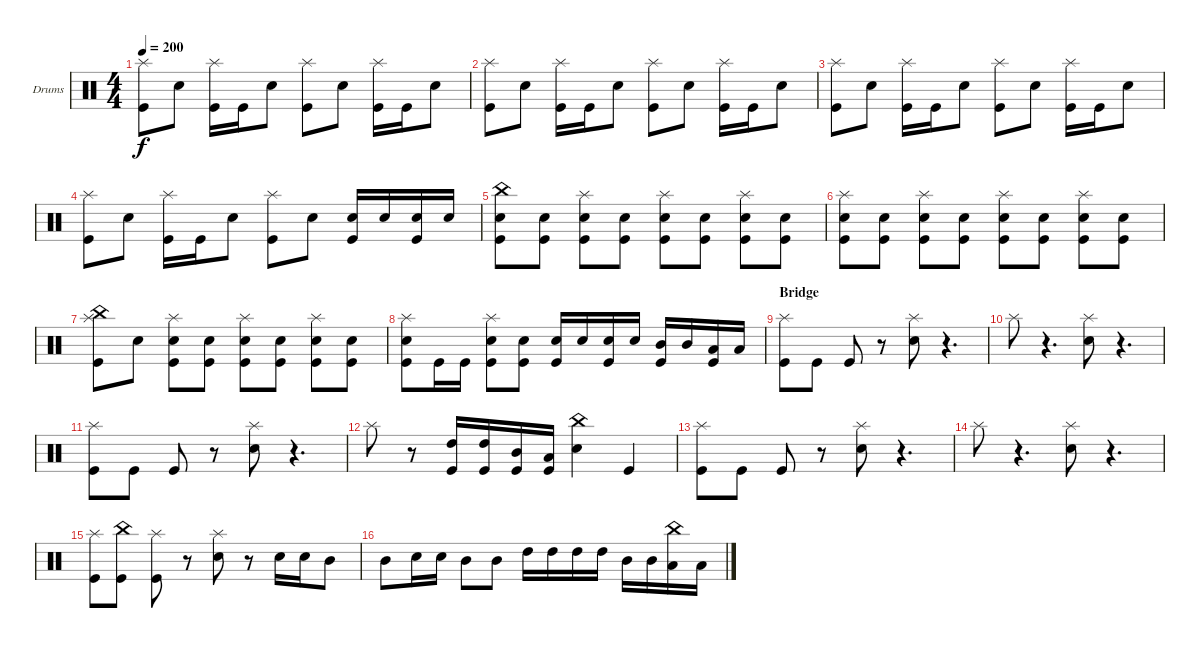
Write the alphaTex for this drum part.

\defaultSystemsLayout 4
\bracketExtendMode groupsimilarinstruments
\firstSystemTrackNameOrientation horizontal
\otherSystemsTrackNameOrientation horizontal
\track ("Drumkit" "Drums") {instrument percussion}
\staff {score}
\articulation defaults
\ts (4 4)
\tempo 200
\clef neutral
\ks c
("Splash (hit)" "Kick (hit)").8{dy f} "Snare (hit) 2".8 ("Splash (hit)" "Kick (hit)").16 "Kick (hit)".16 "Snare (hit) 2".8 ("Splash (hit)" "Kick (hit)").8 "Snare (hit) 2".8 ("Splash (hit)" "Kick (hit)").16 "Kick (hit)".16 "Snare (hit) 2".8 |
("Splash (hit)" "Kick (hit)").8 "Snare (hit) 2".8 ("Splash (hit)" "Kick (hit)").16 "Kick (hit)".16 "Snare (hit) 2".8 ("Splash (hit)" "Kick (hit)").8 "Snare (hit) 2".8 ("Splash (hit)" "Kick (hit)").16 "Kick (hit)".16 "Snare (hit) 2".8 |
("Splash (hit)" "Kick (hit)").8 "Snare (hit) 2".8 ("Splash (hit)" "Kick (hit)").16 "Kick (hit)".16 "Snare (hit) 2".8 ("Splash (hit)" "Kick (hit)").8 "Snare (hit) 2".8 ("Splash (hit)" "Kick (hit)").16 "Kick (hit)".16 "Snare (hit) 2".8 |
("Splash (hit)" "Kick (hit)").8 "Snare (hit) 2".8 ("Splash (hit)" "Kick (hit)").16 "Kick (hit)".16 "Snare (hit) 2".8 ("Splash (hit)" "Kick (hit)").8 "Snare (hit) 2".8 ("Kick (hit)" "Snare (hit) 2").16 "Snare (hit) 2".16 ("Snare (hit) 2" "Kick (hit)").16 "Snare (hit) 2".16 |
("Kick (hit)" "China (hit)" "Snare (hit) 2").8 ("Snare (hit) 2" "Kick (hit)").8 ("Splash (hit)" "Kick (hit)" "Snare (hit) 2").8 ("Snare (hit) 2" "Kick (hit)").8 ("Splash (hit)" "Kick (hit)" "Snare (hit) 2").8 ("Snare (hit) 2" "Kick (hit)").8 ("Splash (hit)" "Kick (hit)" "Snare (hit) 2").8 ("Snare (hit) 2" "Kick (hit)").8 |
("Splash (hit)" "Kick (hit)" "Snare (hit) 2").8 ("Snare (hit) 2" "Kick (hit)").8 ("Splash (hit)" "Kick (hit)" "Snare (hit) 2").8 ("Snare (hit) 2" "Kick (hit)").8 ("Splash (hit)" "Kick (hit)" "Snare (hit) 2").8 ("Snare (hit) 2" "Kick (hit)").8 ("Splash (hit)" "Kick (hit)" "Snare (hit) 2").8 ("Snare (hit) 2" "Kick (hit)").8 |
("Splash (hit)" "Kick (hit)" "China (hit)").8 "Snare (hit) 2".8 ("Splash (hit)" "Kick (hit)" "Snare (hit) 2").8 ("Snare (hit) 2" "Kick (hit)").8 ("Splash (hit)" "Kick (hit)" "Snare (hit) 2").8 ("Snare (hit) 2" "Kick (hit)").8 ("Splash (hit)" "Kick (hit)" "Snare (hit) 2").8 ("Snare (hit) 2" "Kick (hit)").8 |
("Splash (hit)" "Kick (hit)" "Snare (hit) 2").8 "Kick (hit)".16 "Kick (hit)".16 ("Splash (hit)" "Kick (hit)" "Snare (hit) 2").8 ("Snare (hit) 2" "Kick (hit)").8 ("Kick (hit)" "Snare (hit) 2").16 "Snare (hit) 2".16 ("Snare (hit) 2" "Kick (hit)").16 "Snare (hit) 2".16 ("Kick (hit)" "Mid Tom (hit)").16 "Mid Tom (hit)".16 ("Kick (hit)" "Low Tom (hit)").16 "Low Tom (hit)".16 |
\section ("" "Bridge")
("Kick (hit)" "Splash (hit)").8 "Kick (hit)".8 "Kick (hit)".8 r.8 ("Snare (hit) 2" "Splash (hit)").8 r.4{d} |
"Splash (hit)".8 r.4{d} ("Splash (hit)" "Snare (hit) 2").8 r.4{d} |
("Kick (hit)" "Splash (hit)").8 "Kick (hit)".8 "Kick (hit)".8 r.8 ("Snare (hit) 2" "Splash (hit)").8 r.4{d} |
"Splash (hit)".8 r.8 ("High Tom (hit)" "Kick (hit)").16 ("High Tom (hit)" "Kick (hit)").16 ("Mid Tom (hit)" "Kick (hit)").16 ("Low Tom (hit)" "Kick (hit)").16 ("China (hit)" "Snare (hit) 2").4 "Kick (hit)".4 |
("Kick (hit)" "Splash (hit)").8 "Kick (hit)".8 "Kick (hit)".8 r.8 ("Snare (hit) 2" "Splash (hit)").8 r.4{d} |
"Splash (hit)".8 r.4{d} ("Splash (hit)" "Snare (hit) 2").8 r.4{d} |
("Kick (hit)" "Splash (hit)").8 ("Kick (hit)" "China (hit)").8 ("Kick (hit)" "Splash (hit)").8 r.8 ("Snare (hit) 2" "Splash (hit)").8 r.8 "Snare (hit) 2".16 "Snare (hit) 2".16 "Mid Tom (hit)".8 |
"Mid Tom (hit)".8 "Snare (hit) 2".16 "Snare (hit) 2".16 "Mid Tom (hit)".8 "Mid Tom (hit)".8 "High Tom (hit)".16 "High Tom (hit)".16 "High Tom (hit)".16 "High Tom (hit)".16 "Mid Tom (hit)".16 "Mid Tom (hit)".16 ("Low Tom (hit)" "China (hit)").16 "Low Tom (hit)".16
